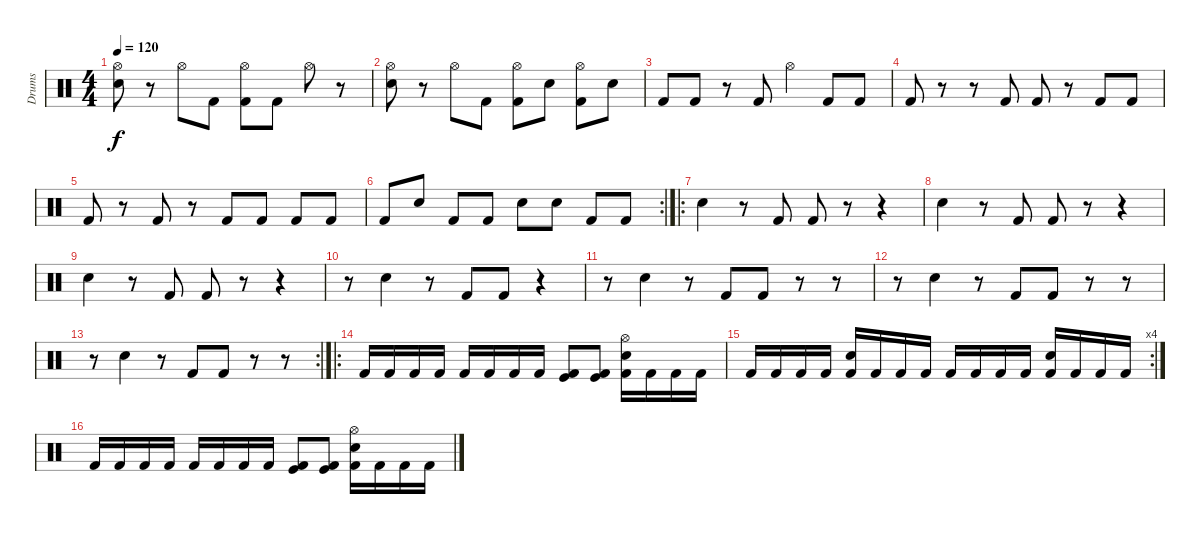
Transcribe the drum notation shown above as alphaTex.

\track ("Drums" "Drums") {instrument percussion}
\staff {score}
\articulation defaults
\ts (4 4)
\tempo 120
\clef neutral
\ks c
("Hi-Hat (open)" "Electric Snare (hit)").8{dy f} r.8 "Hi-Hat (open)".8 "Kick (hit) 2".8 ("Hi-Hat (open)" "Kick (hit) 2").8 "Kick (hit) 2".8 "Hi-Hat (open)".8 r.8 |
("Hi-Hat (open)" "Electric Snare (hit)").8 r.8 "Hi-Hat (open)".8 "Kick (hit) 2".8 ("Hi-Hat (open)" "Kick (hit) 2").8 "Electric Snare (hit)".8 ("Hi-Hat (open)" "Kick (hit) 2").8 "Electric Snare (hit)".8 |
"Kick (hit) 2".8 "Kick (hit) 2".8 r.8 "Kick (hit) 2".8 "Hi-Hat (open)".4 "Kick (hit) 2".8 "Kick (hit) 2".8 |
"Kick (hit) 2".8 r.8 r.8 "Kick (hit) 2".8 "Kick (hit) 2".8 r.8 "Kick (hit) 2".8 "Kick (hit) 2".8 |
"Kick (hit) 2".8 r.8 "Kick (hit) 2".8 r.8 "Kick (hit) 2".8 "Kick (hit) 2".8 "Kick (hit) 2".8 "Kick (hit) 2".8 |
\rc 2 "Kick (hit) 2".8 "Electric Snare (hit)".8 "Kick (hit) 2".8 "Kick (hit) 2".8 "Electric Snare (hit)".8 "Electric Snare (hit)".8 "Kick (hit) 2".8 "Kick (hit) 2".8
|
\ro "Electric Snare (hit)".4
r.8 "Kick (hit) 2".8 "Kick (hit) 2".8 r.8 r.4 |
"Electric Snare (hit)".4 r.8 "Kick (hit) 2".8 "Kick (hit) 2".8 r.8 r.4 |
"Electric Snare (hit)".4 r.8 "Kick (hit) 2".8 "Kick (hit) 2".8 r.8 r.4 |
r.8 "Electric Snare (hit)".4 r.8 "Kick (hit) 2".8 "Kick (hit) 2".8 r.4 |
r.8 "Electric Snare (hit)".4 r.8 "Kick (hit) 2".8 "Kick (hit) 2".8 r.8 r.8 |
r.8 "Electric Snare (hit)".4 r.8 "Kick (hit) 2".8 "Kick (hit) 2".8 r.8 r.8 |
\rc 2
r.8 "Electric Snare (hit)".4 r.8 "Kick (hit) 2".8 "Kick (hit) 2".8 r.8 r.8 |
\ro "Kick (hit) 2".16 "Kick (hit) 2".16 "Kick (hit) 2".16 "Kick (hit) 2".16 "Kick (hit) 2".16 "Kick (hit) 2".16 "Kick (hit) 2".16 "Kick (hit) 2".16
("Kick (hit)" "Kick (hit) 2").8 ("Kick (hit)" "Kick (hit) 2").8 ("Hi-Hat (open)" "Electric Snare (hit)" "Kick (hit) 2").16 "Kick (hit) 2".16 "Kick (hit) 2".16 "Kick (hit) 2".16 |
\rc 4 "Kick (hit) 2".16 "Kick (hit) 2".16 "Kick (hit) 2".16 "Kick (hit) 2".16
("Electric Snare (hit)" "Kick (hit) 2").16 "Kick (hit) 2".16 "Kick (hit) 2".16 "Kick (hit) 2".16 "Kick (hit) 2".16 "Kick (hit) 2".16 "Kick (hit) 2".16 "Kick (hit) 2".16 ("Electric Snare (hit)" "Kick (hit) 2").16 "Kick (hit) 2".16 "Kick (hit) 2".16 "Kick (hit) 2".16 |
"Kick (hit) 2".16{volume 10} "Kick (hit) 2".16 "Kick (hit) 2".16 "Kick (hit) 2".16 "Kick (hit) 2".16 "Kick (hit) 2".16 "Kick (hit) 2".16 "Kick (hit) 2".16 ("Kick (hit)" "Kick (hit) 2").8{volume 2} ("Kick (hit)" "Kick (hit) 2").8 ("Hi-Hat (open)" "Electric Snare (hit)" "Kick (hit) 2").16 "Kick (hit) 2".16 "Kick (hit) 2".16 "Kick (hit) 2".16
